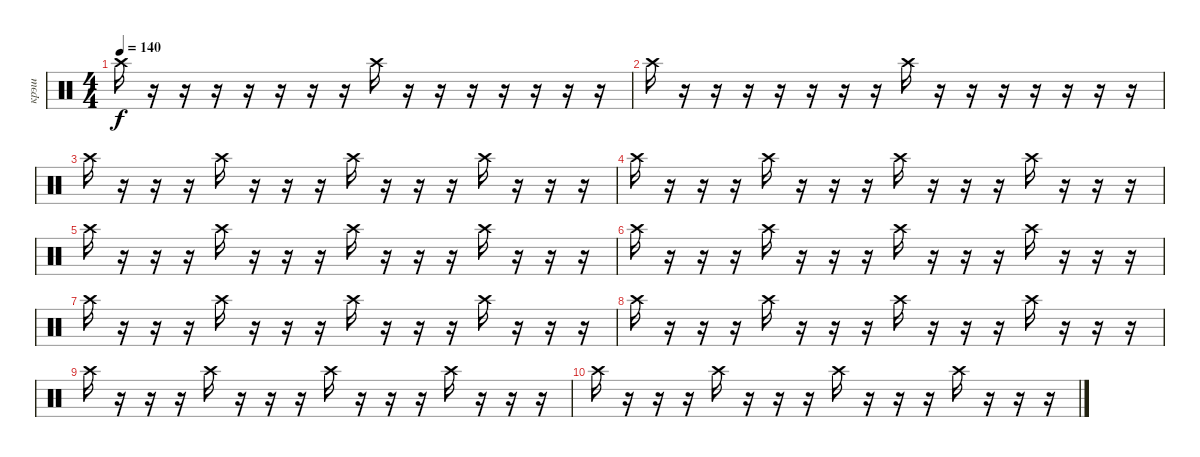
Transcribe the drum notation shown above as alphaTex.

\track ("крэш" "крэш") {mute instrument percussion}
\staff {score}
\articulation defaults
\ts (4 4)
\tempo 140
\clef neutral
\ks c "Crash high (hit)".16{dy f}
r.16 r.16 r.16 r.16 r.16 r.16 r.16 "Crash high (hit)".16 r.16 r.16 r.16 r.16 r.16 r.16 r.16 |
"Crash high (hit)".16 r.16 r.16 r.16 r.16 r.16 r.16 r.16 "Crash high (hit)".16 r.16 r.16 r.16 r.16 r.16 r.16 r.16 |
"Crash high (hit)".16 r.16 r.16 r.16 "Crash high (hit)".16 r.16 r.16 r.16 "Crash high (hit)".16 r.16 r.16 r.16 "Crash high (hit)".16 r.16 r.16 r.16 |
"Crash high (hit)".16 r.16 r.16 r.16 "Crash high (hit)".16 r.16 r.16 r.16 "Crash high (hit)".16 r.16 r.16 r.16 "Crash high (hit)".16 r.16 r.16 r.16 |
"Crash high (hit)".16 r.16 r.16 r.16 "Crash high (hit)".16 r.16 r.16 r.16 "Crash high (hit)".16 r.16 r.16 r.16 "Crash high (hit)".16 r.16 r.16 r.16 |
"Crash high (hit)".16 r.16 r.16 r.16 "Crash high (hit)".16 r.16 r.16 r.16 "Crash high (hit)".16 r.16 r.16 r.16 "Crash high (hit)".16 r.16 r.16 r.16 |
"Crash high (hit)".16 r.16 r.16 r.16 "Crash high (hit)".16 r.16 r.16 r.16 "Crash high (hit)".16 r.16 r.16 r.16 "Crash high (hit)".16 r.16 r.16 r.16 |
"Crash high (hit)".16 r.16 r.16 r.16 "Crash high (hit)".16 r.16 r.16 r.16 "Crash high (hit)".16 r.16 r.16 r.16 "Crash high (hit)".16 r.16 r.16 r.16 |
"Crash high (hit)".16 r.16 r.16 r.16 "Crash high (hit)".16 r.16 r.16 r.16 "Crash high (hit)".16 r.16 r.16 r.16 "Crash high (hit)".16 r.16 r.16 r.16 |
"Crash high (hit)".16 r.16 r.16 r.16 "Crash high (hit)".16 r.16 r.16 r.16 "Crash high (hit)".16 r.16 r.16 r.16 "Crash high (hit)".16 r.16 r.16 r.16
